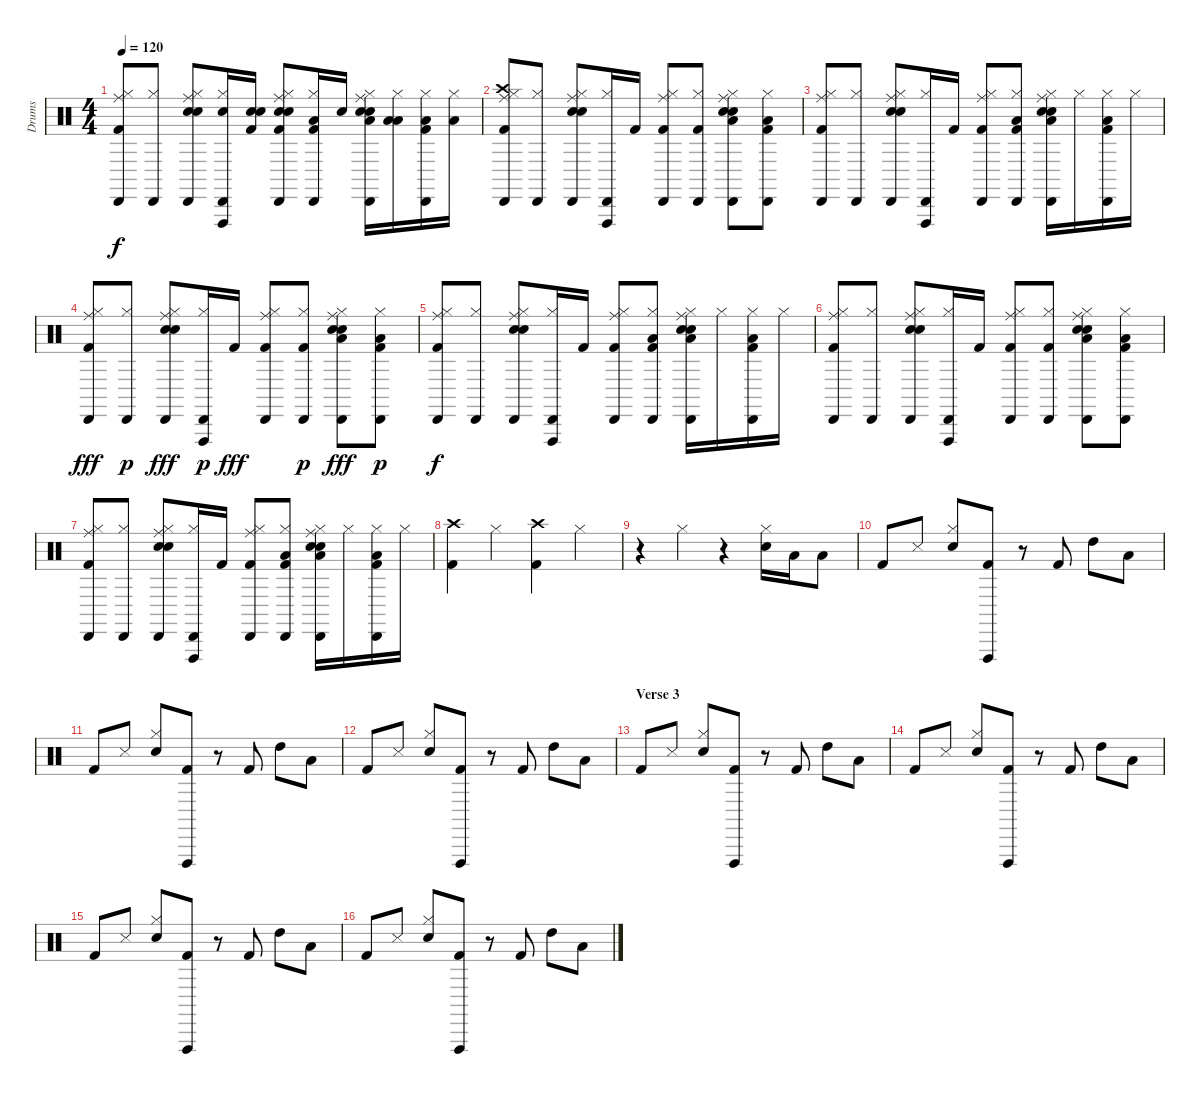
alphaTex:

\track ("Drums" "Drums") {instrument percussion}
\staff {score}
\articulation defaults
\ts (4 4)
\tempo 120
\clef neutral
\ks c
("Kick (hit) 2" "Hi-Hat (closed)" "Ride (middle)" "Cabasa (hit)").8{dy f} ("Hi-Hat (closed)" "Cabasa (hit)").8 ("Snare (hit) 2" "Hi-Hat (closed)" "Ride (middle)" "Cabasa (hit)" "Hand Clap (hit)").8 ("Snare (hit) 2" "Hi-Hat (closed)" "Cabasa (hit)" "Vibraslap (hit)").16 ("Snare (hit) 2" "Kick (hit) 2" "Snare (hit) 2").16 ("Snare (hit) 2" "Kick (hit) 2" "Snare (hit) 2" "Hi-Hat (closed)" "Ride (middle)" "Cabasa (hit)").8 ("Kick (hit) 2" "Hi-Hat (closed)" "Low Tom (hit)" "Cabasa (hit)").16 "Snare (hit) 2".16 ("Snare (hit) 2" "Snare (hit) 2" "Hi-Hat (closed)" "Ride (middle)" "Low Tom (hit)" "Cabasa (hit)").16 ("Low Tom (hit)" "Hi-Hat (closed)" "Low Tom (hit)").16 ("Kick (hit) 2" "Hi-Hat (closed)" "Low Floor Tom (hit)" "Cabasa (hit)").16 ("Hi-Hat (closed)" "Low Floor Tom (hit)").16 |
("Kick (hit) 2" "Hi-Hat (closed)" "Crash high (hit)" "Ride (middle)" "Cabasa (hit)").8 ("Hi-Hat (closed)" "Cabasa (hit)").8 ("Snare (hit) 2" "Hi-Hat (closed)" "Ride (middle)" "Cabasa (hit)" "Hand Clap (hit)").8 ("Hi-Hat (closed)" "Cabasa (hit)" "Vibraslap (hit)").16 "Kick (hit) 2".16 ("Kick (hit) 2" "Hi-Hat (closed)" "Ride (middle)" "Cabasa (hit)").8 ("Kick (hit) 2" "Hi-Hat (closed)" "Cabasa (hit)").8 ("Snare (hit) 2" "Hi-Hat (closed)" "Ride (middle)" "Low Tom (hit)" "Cabasa (hit)" "Hand Clap (hit)").8 ("Kick (hit) 2" "Hi-Hat (closed)" "Low Tom (hit)" "Cabasa (hit)").8 |
("Kick (hit) 2" "Hi-Hat (closed)" "Ride (middle)" "Cabasa (hit)").8 ("Hi-Hat (closed)" "Cabasa (hit)").8 ("Snare (hit) 2" "Hi-Hat (closed)" "Ride (middle)" "Cabasa (hit)" "Hand Clap (hit)").8 ("Hi-Hat (closed)" "Cabasa (hit)" "Vibraslap (hit)").16 "Kick (hit) 2".16 ("Kick (hit) 2" "Hi-Hat (closed)" "Ride (middle)" "Cabasa (hit)").8 ("Kick (hit) 2" "Hi-Hat (closed)" "Low Tom (hit)" "Cabasa (hit)").8 ("Snare (hit) 2" "Hi-Hat (closed)" "Ride (middle)" "Low Tom (hit)" "Cabasa (hit)" "Hand Clap (hit)").16 "Hi-Hat (closed)".16 ("Kick (hit) 2" "Hi-Hat (closed)" "Low Tom (hit)" "Cabasa (hit)").16 "Hi-Hat (closed)".16 |
("Kick (hit) 2" "Hi-Hat (closed)" "Ride (middle)" "Cabasa (hit)").8{dy fff} ("Hi-Hat (closed)" "Cabasa (hit)").8{dy p} ("Snare (hit) 2" "Hi-Hat (closed)" "Ride (middle)" "Cabasa (hit)" "Hand Clap (hit)").8{dy fff} ("Hi-Hat (closed)" "Cabasa (hit)" "Vibraslap (hit)").16{dy p} "Kick (hit) 2".16{dy fff} ("Kick (hit) 2" "Hi-Hat (closed)" "Ride (middle)" "Cabasa (hit)").8 ("Kick (hit) 2" "Hi-Hat (closed)" "Cabasa (hit)").8{dy p} ("Snare (hit) 2" "Hi-Hat (closed)" "Ride (middle)" "Low Tom (hit)" "Cabasa (hit)" "Hand Clap (hit)").8{dy fff} ("Kick (hit) 2" "Hi-Hat (closed)" "Low Tom (hit)" "Cabasa (hit)").8{dy p} |
("Kick (hit) 2" "Hi-Hat (closed)" "Ride (middle)" "Cabasa (hit)").8{dy f} ("Hi-Hat (closed)" "Cabasa (hit)").8 ("Snare (hit) 2" "Hi-Hat (closed)" "Ride (middle)" "Cabasa (hit)" "Hand Clap (hit)").8 ("Hi-Hat (closed)" "Cabasa (hit)" "Vibraslap (hit)").16 "Kick (hit) 2".16 ("Kick (hit) 2" "Hi-Hat (closed)" "Ride (middle)" "Cabasa (hit)").8 ("Kick (hit) 2" "Hi-Hat (closed)" "Low Tom (hit)" "Cabasa (hit)").8 ("Snare (hit) 2" "Hi-Hat (closed)" "Ride (middle)" "Low Tom (hit)" "Cabasa (hit)" "Hand Clap (hit)").16 "Hi-Hat (closed)".16 ("Kick (hit) 2" "Hi-Hat (closed)" "Low Tom (hit)" "Cabasa (hit)").16 "Hi-Hat (closed)".16 |
("Kick (hit) 2" "Hi-Hat (closed)" "Ride (middle)" "Cabasa (hit)").8 ("Hi-Hat (closed)" "Cabasa (hit)").8 ("Snare (hit) 2" "Hi-Hat (closed)" "Ride (middle)" "Cabasa (hit)" "Hand Clap (hit)").8 ("Hi-Hat (closed)" "Cabasa (hit)" "Vibraslap (hit)").16 "Kick (hit) 2".16 ("Kick (hit) 2" "Hi-Hat (closed)" "Ride (middle)" "Cabasa (hit)").8 ("Kick (hit) 2" "Hi-Hat (closed)" "Cabasa (hit)").8 ("Snare (hit) 2" "Hi-Hat (closed)" "Ride (middle)" "Low Tom (hit)" "Cabasa (hit)" "Hand Clap (hit)").8 ("Kick (hit) 2" "Hi-Hat (closed)" "Low Tom (hit)" "Cabasa (hit)").8 |
("Kick (hit) 2" "Hi-Hat (closed)" "Ride (middle)" "Cabasa (hit)").8 ("Hi-Hat (closed)" "Cabasa (hit)").8 ("Snare (hit) 2" "Hi-Hat (closed)" "Ride (middle)" "Cabasa (hit)" "Hand Clap (hit)").8 ("Hi-Hat (closed)" "Cabasa (hit)" "Vibraslap (hit)").16 "Kick (hit) 2".16 ("Kick (hit) 2" "Hi-Hat (closed)" "Ride (middle)" "Cabasa (hit)").8 ("Kick (hit) 2" "Hi-Hat (closed)" "Low Tom (hit)" "Cabasa (hit)").8 ("Snare (hit) 2" "Hi-Hat (closed)" "Ride (middle)" "Low Tom (hit)" "Cabasa (hit)" "Hand Clap (hit)").16 "Hi-Hat (closed)".16 ("Kick (hit) 2" "Hi-Hat (closed)" "Low Tom (hit)" "Cabasa (hit)").16 "Hi-Hat (closed)".16 |
("Kick (hit) 2" "Crash high (hit)").4 "Hi-Hat (closed)".4 ("Kick (hit) 2" "Crash high (hit)").4 "Hi-Hat (closed)".4 |
r.4 "Hi-Hat (closed)".4 r.4 ("Snare (hit) 2" "Hi-Hat (closed)").16 "Low Tom (hit)".16 "Low Floor Tom (hit)".8 |
"Kick (hit) 2".8 "Snare (side stick) 3".8 ("Snare (hit) 2" "Hi-Hat (closed)").8 ("Kick (hit) 2" "Vibraslap (hit)").8 r.8 "Kick (hit) 2".8 "High Tom (hit)".8 "Low Tom (hit)".8 |
"Kick (hit) 2".8 "Snare (side stick) 3".8 ("Snare (hit) 2" "Hi-Hat (closed)").8 ("Kick (hit) 2" "Vibraslap (hit)").8 r.8 "Kick (hit) 2".8 "High Tom (hit)".8 "Low Tom (hit)".8 |
"Kick (hit) 2".8 "Snare (side stick) 3".8 ("Snare (hit) 2" "Hi-Hat (closed)").8 ("Kick (hit) 2" "Vibraslap (hit)").8 r.8 "Kick (hit) 2".8 "High Tom (hit)".8 "Low Tom (hit)".8 |
\section ("" "Verse 3")
"Kick (hit) 2".8 "Snare (side stick) 3".8 ("Snare (hit) 2" "Hi-Hat (closed)").8 ("Kick (hit) 2" "Vibraslap (hit)").8 r.8 "Kick (hit) 2".8 "High Tom (hit)".8 "Low Tom (hit)".8 |
"Kick (hit) 2".8 "Snare (side stick) 3".8 ("Snare (hit) 2" "Hi-Hat (closed)").8 ("Kick (hit) 2" "Vibraslap (hit)").8 r.8 "Kick (hit) 2".8 "High Tom (hit)".8 "Low Tom (hit)".8 |
"Kick (hit) 2".8 "Snare (side stick) 3".8 ("Snare (hit) 2" "Hi-Hat (closed)").8 ("Kick (hit) 2" "Vibraslap (hit)").8 r.8 "Kick (hit) 2".8 "High Tom (hit)".8 "Low Tom (hit)".8 |
"Kick (hit) 2".8 "Snare (side stick) 3".8 ("Snare (hit) 2" "Hi-Hat (closed)").8 ("Kick (hit) 2" "Vibraslap (hit)").8 r.8 "Kick (hit) 2".8 "High Tom (hit)".8 "Low Tom (hit)".8
